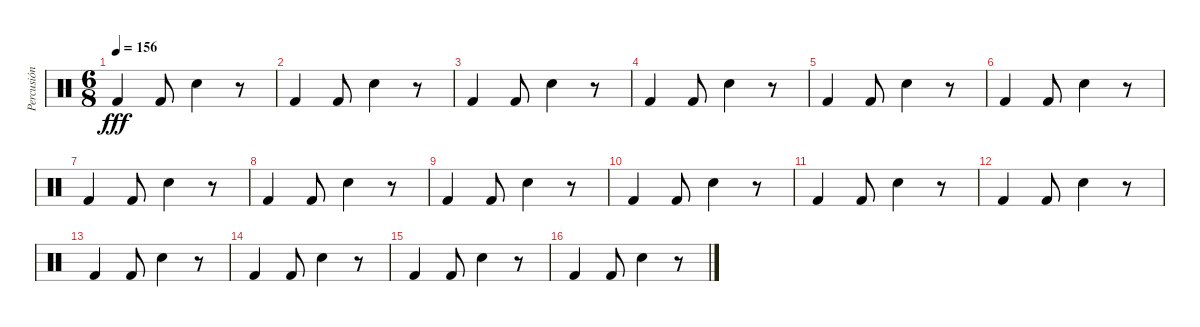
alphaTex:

\track ("Percusión" "Percusión") {instrument percussion}
\staff {score}
\articulation defaults
\ts (6 8)
\tempo 156
\clef neutral
\ks c "Kick (hit) 2".4{dy fff} "Kick (hit) 2".8 "Snare (hit) 2".4
r.8 |
"Kick (hit) 2".4 "Kick (hit) 2".8 "Snare (hit) 2".4 r.8 |
"Kick (hit) 2".4 "Kick (hit) 2".8 "Snare (hit) 2".4 r.8 |
"Kick (hit) 2".4 "Kick (hit) 2".8 "Snare (hit) 2".4 r.8 |
"Kick (hit) 2".4 "Kick (hit) 2".8 "Snare (hit) 2".4 r.8 |
"Kick (hit) 2".4 "Kick (hit) 2".8 "Snare (hit) 2".4 r.8 |
"Kick (hit) 2".4 "Kick (hit) 2".8 "Snare (hit) 2".4 r.8 |
"Kick (hit) 2".4 "Kick (hit) 2".8 "Snare (hit) 2".4 r.8 |
"Kick (hit) 2".4 "Kick (hit) 2".8 "Snare (hit) 2".4 r.8 |
"Kick (hit) 2".4 "Kick (hit) 2".8 "Snare (hit) 2".4 r.8 |
"Kick (hit) 2".4 "Kick (hit) 2".8 "Snare (hit) 2".4 r.8 |
"Kick (hit) 2".4 "Kick (hit) 2".8 "Snare (hit) 2".4 r.8 |
"Kick (hit) 2".4 "Kick (hit) 2".8 "Snare (hit) 2".4 r.8 |
"Kick (hit) 2".4 "Kick (hit) 2".8 "Snare (hit) 2".4 r.8 |
"Kick (hit) 2".4 "Kick (hit) 2".8 "Snare (hit) 2".4 r.8 |
"Kick (hit) 2".4 "Kick (hit) 2".8 "Snare (hit) 2".4 r.8
